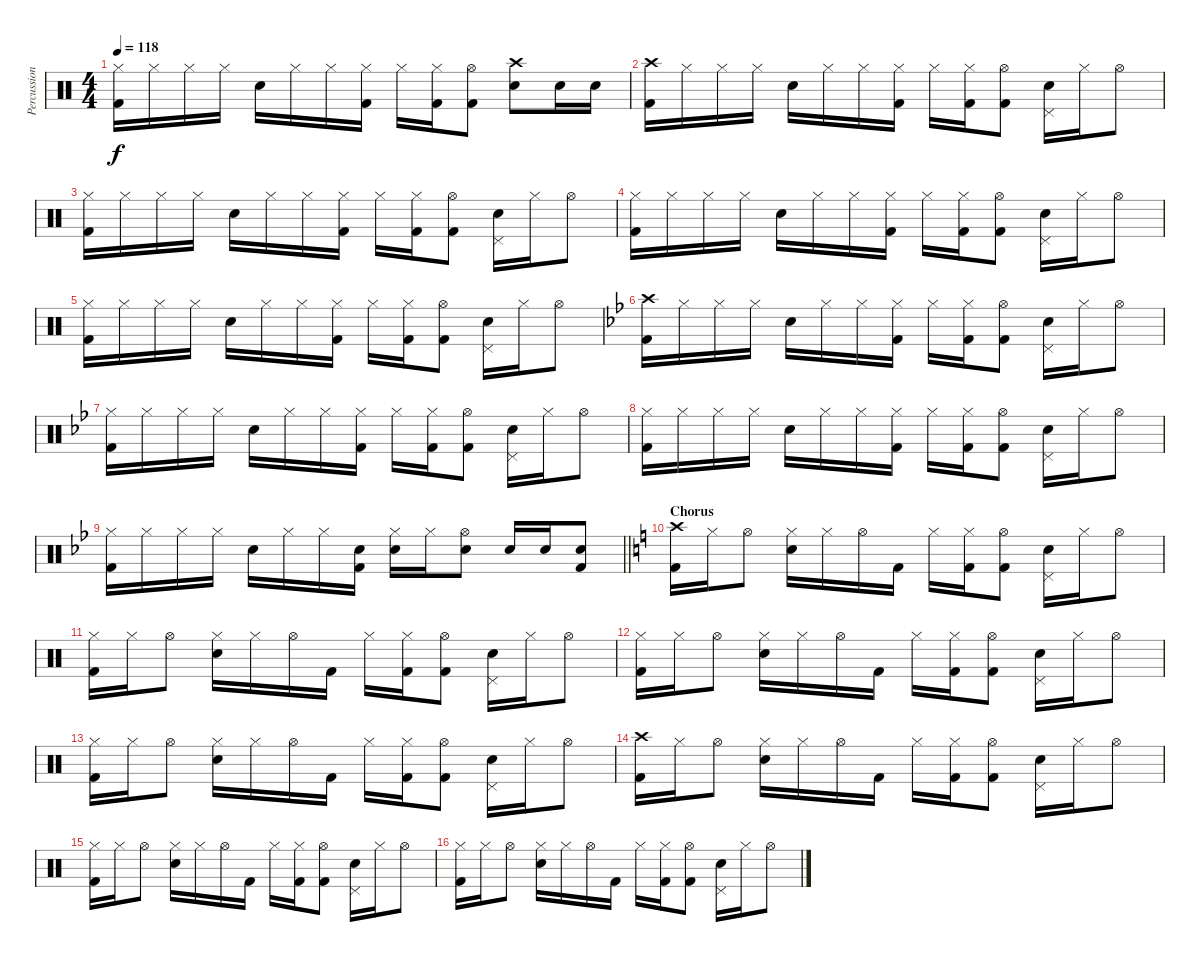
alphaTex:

\track ("Percussion" "Percussion") {instrument percussion}
\staff {score}
\articulation defaults
\ts (4 4)
\tempo 118
\clef neutral
\ks c
("Hi-Hat (closed)" "Kick (hit) 2").16{dy f} "Hi-Hat (closed)".16 "Hi-Hat (closed)".16 "Hi-Hat (closed)".16 "Electric Snare (hit)".16 "Hi-Hat (closed)".16 "Hi-Hat (closed)".16 ("Hi-Hat (closed)" "Kick (hit) 2").16 "Hi-Hat (closed)".16 ("Hi-Hat (closed)" "Kick (hit) 2").16 ("Hi-Hat (open)" "Kick (hit) 2").8 ("Crash high (hit)" "Electric Snare (hit)").8 "Electric Snare (hit)".16 "Electric Snare (hit)".16 |
("Crash high (hit)" "Kick (hit) 2").16 "Hi-Hat (closed)".16 "Hi-Hat (closed)".16 "Hi-Hat (closed)".16 "Electric Snare (hit)".16 "Hi-Hat (closed)".16 "Hi-Hat (closed)".16 ("Hi-Hat (closed)" "Kick (hit) 2").16 "Hi-Hat (closed)".16 ("Hi-Hat (closed)" "Kick (hit) 2").16 ("Hi-Hat (open)" "Kick (hit) 2").8 ("Pedal Hi-Hat (hit)" "Electric Snare (hit)").16 "Hi-Hat (closed)".16 "Hi-Hat (open)".8 |
("Hi-Hat (closed)" "Kick (hit) 2").16 "Hi-Hat (closed)".16 "Hi-Hat (closed)".16 "Hi-Hat (closed)".16 "Electric Snare (hit)".16 "Hi-Hat (closed)".16 "Hi-Hat (closed)".16 ("Hi-Hat (closed)" "Kick (hit) 2").16 "Hi-Hat (closed)".16 ("Hi-Hat (closed)" "Kick (hit) 2").16 ("Hi-Hat (open)" "Kick (hit) 2").8 ("Pedal Hi-Hat (hit)" "Electric Snare (hit)").16 "Hi-Hat (closed)".16 "Hi-Hat (open)".8 |
("Hi-Hat (closed)" "Kick (hit) 2").16 "Hi-Hat (closed)".16 "Hi-Hat (closed)".16 "Hi-Hat (closed)".16 "Electric Snare (hit)".16 "Hi-Hat (closed)".16 "Hi-Hat (closed)".16 ("Hi-Hat (closed)" "Kick (hit) 2").16 "Hi-Hat (closed)".16 ("Hi-Hat (closed)" "Kick (hit) 2").16 ("Hi-Hat (open)" "Kick (hit) 2").8 ("Pedal Hi-Hat (hit)" "Electric Snare (hit)").16 "Hi-Hat (closed)".16 "Hi-Hat (open)".8 |
("Hi-Hat (closed)" "Kick (hit) 2").16 "Hi-Hat (closed)".16 "Hi-Hat (closed)".16 "Hi-Hat (closed)".16 "Electric Snare (hit)".16 "Hi-Hat (closed)".16 "Hi-Hat (closed)".16 ("Hi-Hat (closed)" "Kick (hit) 2").16 "Hi-Hat (closed)".16 ("Hi-Hat (closed)" "Kick (hit) 2").16 ("Hi-Hat (open)" "Kick (hit) 2").8 ("Pedal Hi-Hat (hit)" "Electric Snare (hit)").16 "Hi-Hat (closed)".16 "Hi-Hat (open)".8 |
\ks bb
("Crash high (hit)" "Kick (hit) 2").16 "Hi-Hat (closed)".16 "Hi-Hat (closed)".16 "Hi-Hat (closed)".16 "Electric Snare (hit)".16 "Hi-Hat (closed)".16 "Hi-Hat (closed)".16 ("Hi-Hat (closed)" "Kick (hit) 2").16 "Hi-Hat (closed)".16 ("Hi-Hat (closed)" "Kick (hit) 2").16 ("Hi-Hat (open)" "Kick (hit) 2").8 ("Pedal Hi-Hat (hit)" "Electric Snare (hit)").16 "Hi-Hat (closed)".16 "Hi-Hat (open)".8 |
("Hi-Hat (closed)" "Kick (hit) 2").16 "Hi-Hat (closed)".16 "Hi-Hat (closed)".16 "Hi-Hat (closed)".16 "Electric Snare (hit)".16 "Hi-Hat (closed)".16 "Hi-Hat (closed)".16 ("Hi-Hat (closed)" "Kick (hit) 2").16 "Hi-Hat (closed)".16 ("Hi-Hat (closed)" "Kick (hit) 2").16 ("Hi-Hat (open)" "Kick (hit) 2").8 ("Pedal Hi-Hat (hit)" "Electric Snare (hit)").16 "Hi-Hat (closed)".16 "Hi-Hat (open)".8 |
("Hi-Hat (closed)" "Kick (hit) 2").16 "Hi-Hat (closed)".16 "Hi-Hat (closed)".16 "Hi-Hat (closed)".16 "Electric Snare (hit)".16 "Hi-Hat (closed)".16 "Hi-Hat (closed)".16 ("Hi-Hat (closed)" "Kick (hit) 2").16 "Hi-Hat (closed)".16 ("Hi-Hat (closed)" "Kick (hit) 2").16 ("Hi-Hat (open)" "Kick (hit) 2").8 ("Pedal Hi-Hat (hit)" "Electric Snare (hit)").16 "Hi-Hat (closed)".16 "Hi-Hat (open)".8 |
\barLineRight lightlight
("Hi-Hat (closed)" "Kick (hit) 2").16 "Hi-Hat (closed)".16 "Hi-Hat (closed)".16 "Hi-Hat (closed)".16 "Electric Snare (hit)".16 "Hi-Hat (closed)".16 "Hi-Hat (closed)".16 ("Electric Snare (hit)" "Kick (hit) 2").16 ("Hi-Hat (closed)" "Electric Snare (hit)").16 "Hi-Hat (closed)".16 ("Hi-Hat (open)" "Electric Snare (hit)").8 "Electric Snare (hit)".16 "Electric Snare (hit)".16 ("Electric Snare (hit)" "Kick (hit) 2").8 |
\section ("" "Chorus")
\ks c
("Crash high (hit)" "Kick (hit) 2").16 "Hi-Hat (closed)".16 "Hi-Hat (open)".8 ("Hi-Hat (closed)" "Electric Snare (hit)").16 "Hi-Hat (closed)".16 "Hi-Hat (open)".16 "Kick (hit) 2".16 "Hi-Hat (closed)".16 ("Hi-Hat (closed)" "Kick (hit) 2").16 ("Hi-Hat (open)" "Kick (hit) 2").8 ("Pedal Hi-Hat (hit)" "Electric Snare (hit)").16 "Hi-Hat (closed)".16 "Hi-Hat (open)".8 |
("Hi-Hat (closed)" "Kick (hit) 2").16 "Hi-Hat (closed)".16 "Hi-Hat (open)".8 ("Hi-Hat (closed)" "Electric Snare (hit)").16 "Hi-Hat (closed)".16 "Hi-Hat (open)".16 "Kick (hit) 2".16 "Hi-Hat (closed)".16 ("Hi-Hat (closed)" "Kick (hit) 2").16 ("Hi-Hat (open)" "Kick (hit) 2").8 ("Pedal Hi-Hat (hit)" "Electric Snare (hit)").16 "Hi-Hat (closed)".16 "Hi-Hat (open)".8 |
("Hi-Hat (closed)" "Kick (hit) 2").16 "Hi-Hat (closed)".16 "Hi-Hat (open)".8 ("Hi-Hat (closed)" "Electric Snare (hit)").16 "Hi-Hat (closed)".16 "Hi-Hat (open)".16 "Kick (hit) 2".16 "Hi-Hat (closed)".16 ("Hi-Hat (closed)" "Kick (hit) 2").16 ("Hi-Hat (open)" "Kick (hit) 2").8 ("Pedal Hi-Hat (hit)" "Electric Snare (hit)").16 "Hi-Hat (closed)".16 "Hi-Hat (open)".8 |
("Hi-Hat (closed)" "Kick (hit) 2").16 "Hi-Hat (closed)".16 "Hi-Hat (open)".8 ("Hi-Hat (closed)" "Electric Snare (hit)").16 "Hi-Hat (closed)".16 "Hi-Hat (open)".16 "Kick (hit) 2".16 "Hi-Hat (closed)".16 ("Hi-Hat (closed)" "Kick (hit) 2").16 ("Hi-Hat (open)" "Kick (hit) 2").8 ("Pedal Hi-Hat (hit)" "Electric Snare (hit)").16 "Hi-Hat (closed)".16 "Hi-Hat (open)".8 |
("Crash high (hit)" "Kick (hit) 2").16 "Hi-Hat (closed)".16 "Hi-Hat (open)".8 ("Hi-Hat (closed)" "Electric Snare (hit)").16 "Hi-Hat (closed)".16 "Hi-Hat (open)".16 "Kick (hit) 2".16 "Hi-Hat (closed)".16 ("Hi-Hat (closed)" "Kick (hit) 2").16 ("Hi-Hat (open)" "Kick (hit) 2").8 ("Pedal Hi-Hat (hit)" "Electric Snare (hit)").16 "Hi-Hat (closed)".16 "Hi-Hat (open)".8 |
("Hi-Hat (closed)" "Kick (hit) 2").16 "Hi-Hat (closed)".16 "Hi-Hat (open)".8 ("Hi-Hat (closed)" "Electric Snare (hit)").16 "Hi-Hat (closed)".16 "Hi-Hat (open)".16 "Kick (hit) 2".16 "Hi-Hat (closed)".16 ("Hi-Hat (closed)" "Kick (hit) 2").16 ("Hi-Hat (open)" "Kick (hit) 2").8 ("Pedal Hi-Hat (hit)" "Electric Snare (hit)").16 "Hi-Hat (closed)".16 "Hi-Hat (open)".8 |
("Hi-Hat (closed)" "Kick (hit) 2").16 "Hi-Hat (closed)".16 "Hi-Hat (open)".8 ("Hi-Hat (closed)" "Electric Snare (hit)").16 "Hi-Hat (closed)".16 "Hi-Hat (open)".16 "Kick (hit) 2".16 "Hi-Hat (closed)".16 ("Hi-Hat (closed)" "Kick (hit) 2").16 ("Hi-Hat (open)" "Kick (hit) 2").8 ("Pedal Hi-Hat (hit)" "Electric Snare (hit)").16 "Hi-Hat (closed)".16 "Hi-Hat (open)".8
